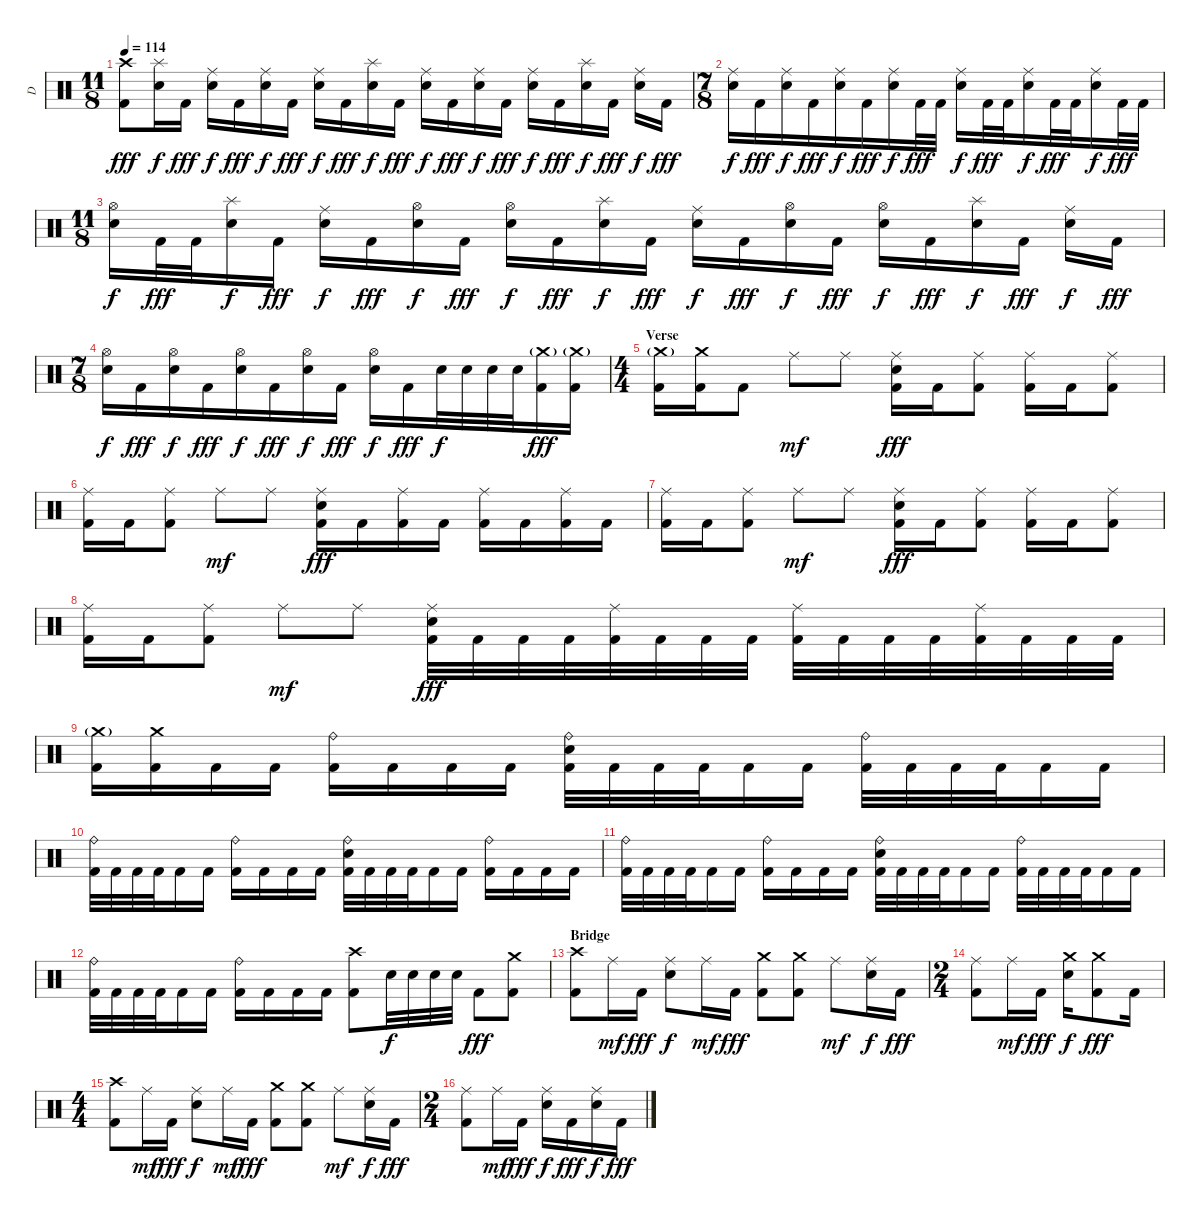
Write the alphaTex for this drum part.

\track ("D" "D") {instrument percussion}
\staff {score}
\articulation defaults
\ts (11 8)
\tempo 114
\clef neutral
\ks c
("Crash high (hit)" "Kick (hit) 2").8{dy fff} ("Splash (hit)" "Electric Snare (hit)").16{dy f} "Kick (hit) 2".16{dy fff} ("Ride (middle)" "Electric Snare (hit)").16{dy f} "Kick (hit) 2".16{dy fff} ("Ride (middle)" "Electric Snare (hit)").16{dy f} "Kick (hit) 2".16{dy fff} ("Ride (middle)" "Electric Snare (hit)").16{dy f} "Kick (hit) 2".16{dy fff} ("Splash (hit)" "Electric Snare (hit)").16{dy f} "Kick (hit) 2".16{dy fff} ("Ride (middle)" "Electric Snare (hit)").16{dy f} "Kick (hit) 2".16{dy fff} ("Ride (middle)" "Electric Snare (hit)").16{dy f} "Kick (hit) 2".16{dy fff} ("Ride (middle)" "Electric Snare (hit)").16{dy f} "Kick (hit) 2".16{dy fff} ("Splash (hit)" "Electric Snare (hit)").16{dy f} "Kick (hit) 2".16{dy fff} ("Ride (middle)" "Electric Snare (hit)").16{dy f} "Kick (hit) 2".16{dy fff} |
\ts (7 8)
("Ride (middle)" "Electric Snare (hit)").16{dy f} "Kick (hit) 2".16{dy fff} ("Ride (middle)" "Electric Snare (hit)").16{dy f} "Kick (hit) 2".16{dy fff} ("Ride (middle)" "Electric Snare (hit)").16{dy f} "Kick (hit) 2".16{dy fff} ("Ride (middle)" "Electric Snare (hit)").16{dy f} "Kick (hit) 2".32{dy fff} "Kick (hit) 2".32 ("Ride (middle)" "Electric Snare (hit)").16{dy f} "Kick (hit) 2".32{dy fff} "Kick (hit) 2".32 ("Ride (middle)" "Electric Snare (hit)").16{dy f} "Kick (hit) 2".32{dy fff} "Kick (hit) 2".32 ("Ride (middle)" "Electric Snare (hit)").16{dy f} "Kick (hit) 2".32{dy fff} "Kick (hit) 2".32 |
\ts (11 8)
("Hi-Hat (open)" "Electric Snare (hit)").16{dy f} "Kick (hit) 2".32{dy fff} "Kick (hit) 2".32 ("Splash (hit)" "Electric Snare (hit)").16{dy f} "Kick (hit) 2".16{dy fff} ("Ride (middle)" "Electric Snare (hit)").16{dy f} "Kick (hit) 2".16{dy fff} ("Hi-Hat (open)" "Electric Snare (hit)").16{dy f} "Kick (hit) 2".16{dy fff} ("Hi-Hat (open)" "Electric Snare (hit)").16{dy f} "Kick (hit) 2".16{dy fff} ("Splash (hit)" "Electric Snare (hit)").16{dy f} "Kick (hit) 2".16{dy fff} ("Ride (middle)" "Electric Snare (hit)").16{dy f} "Kick (hit) 2".16{dy fff} ("Hi-Hat (open)" "Electric Snare (hit)").16{dy f} "Kick (hit) 2".16{dy fff} ("Hi-Hat (open)" "Electric Snare (hit)").16{dy f} "Kick (hit) 2".16{dy fff} ("Splash (hit)" "Electric Snare (hit)").16{dy f} "Kick (hit) 2".16{dy fff} ("Ride (middle)" "Electric Snare (hit)").16{dy f} "Kick (hit) 2".16{dy fff} |
\ts (7 8)
("Hi-Hat (open)" "Electric Snare (hit)").16{dy f} "Kick (hit) 2".16{dy fff} ("Hi-Hat (open)" "Electric Snare (hit)").16{dy f} "Kick (hit) 2".16{dy fff} ("Hi-Hat (open)" "Electric Snare (hit)").16{dy f} "Kick (hit) 2".16{dy fff} ("Hi-Hat (open)" "Electric Snare (hit)").16{dy f} "Kick (hit) 2".16{dy fff} ("Hi-Hat (open)" "Electric Snare (hit)").16{dy f} "Kick (hit) 2".16{dy fff} "Electric Snare (hit)".32{dy f} "Electric Snare (hit)".32 "Electric Snare (hit)".32 "Electric Snare (hit)".32 ("Crash medium (hit)"{g} "Kick (hit) 2").16{dy fff} ("Crash medium (hit)"{g} "Kick (hit) 2").16 |
\ts (4 4)
\section ("" "Verse")
("Crash medium (hit)"{g} "Kick (hit) 2").16 ("Crash medium (hit)" "Kick (hit) 2").16 "Kick (hit) 2".8 "Ride (middle)".8{dy mf} "Ride (middle)".8 ("Ride (middle)" "Electric Snare (hit)" "Kick (hit) 2").16{dy fff} "Kick (hit) 2".16 ("Ride (middle)" "Kick (hit) 2").8 ("Ride (middle)" "Kick (hit) 2").16 "Kick (hit) 2".16 ("Ride (middle)" "Kick (hit) 2").8 |
("Ride (middle)" "Kick (hit) 2").16 "Kick (hit) 2".16 ("Ride (middle)" "Kick (hit) 2").8 "Ride (middle)".8{dy mf} "Ride (middle)".8 ("Ride (middle)" "Electric Snare (hit)" "Kick (hit) 2").16{dy fff} "Kick (hit) 2".16 ("Ride (middle)" "Kick (hit) 2").16 "Kick (hit) 2".16 ("Ride (middle)" "Kick (hit) 2").16 "Kick (hit) 2".16 ("Ride (middle)" "Kick (hit) 2").16 "Kick (hit) 2".16 |
("Ride (middle)" "Kick (hit) 2").16 "Kick (hit) 2".16 ("Ride (middle)" "Kick (hit) 2").8 "Ride (middle)".8{dy mf} "Ride (middle)".8 ("Ride (middle)" "Electric Snare (hit)" "Kick (hit) 2").16{dy fff} "Kick (hit) 2".16 ("Ride (middle)" "Kick (hit) 2").8 ("Ride (middle)" "Kick (hit) 2").16 "Kick (hit) 2".16 ("Ride (middle)" "Kick (hit) 2").8 |
("Ride (middle)" "Kick (hit) 2").16 "Kick (hit) 2".16 ("Ride (middle)" "Kick (hit) 2").8 "Ride (middle)".8{dy mf} "Ride (middle)".8 ("Ride (middle)" "Electric Snare (hit)" "Kick (hit) 2").32{dy fff} "Kick (hit) 2".32 "Kick (hit) 2".32 "Kick (hit) 2".32 ("Ride (middle)" "Kick (hit) 2").32 "Kick (hit) 2".32 "Kick (hit) 2".32 "Kick (hit) 2".32 ("Ride (middle)" "Kick (hit) 2").32 "Kick (hit) 2".32 "Kick (hit) 2".32 "Kick (hit) 2".32 ("Ride (middle)" "Kick (hit) 2").32 "Kick (hit) 2".32 "Kick (hit) 2".32 "Kick (hit) 2".32 |
("Crash medium (hit)"{g} "Kick (hit) 2").16 ("Crash medium (hit)" "Kick (hit) 2").16 "Kick (hit) 2".16 "Kick (hit) 2".16 ("Ride (bell)" "Kick (hit) 2").16 "Kick (hit) 2".16 "Kick (hit) 2".16 "Kick (hit) 2".16 ("Ride (bell)" "Electric Snare (hit)" "Kick (hit) 2").32 "Kick (hit) 2".32 "Kick (hit) 2".32 "Kick (hit) 2".32 "Kick (hit) 2".16 "Kick (hit) 2".16 ("Ride (bell)" "Kick (hit) 2").32 "Kick (hit) 2".32 "Kick (hit) 2".32 "Kick (hit) 2".32 "Kick (hit) 2".16 "Kick (hit) 2".16 |
("Ride (bell)" "Kick (hit) 2").32 "Kick (hit) 2".32 "Kick (hit) 2".32 "Kick (hit) 2".32 "Kick (hit) 2".16 "Kick (hit) 2".16 ("Ride (bell)" "Kick (hit) 2").16 "Kick (hit) 2".16 "Kick (hit) 2".16 "Kick (hit) 2".16 ("Ride (bell)" "Electric Snare (hit)" "Kick (hit) 2").32 "Kick (hit) 2".32 "Kick (hit) 2".32 "Kick (hit) 2".32 "Kick (hit) 2".16 "Kick (hit) 2".16 ("Ride (bell)" "Kick (hit) 2").16 "Kick (hit) 2".16 "Kick (hit) 2".16 "Kick (hit) 2".16 |
("Ride (bell)" "Kick (hit) 2").32 "Kick (hit) 2".32 "Kick (hit) 2".32 "Kick (hit) 2".32 "Kick (hit) 2".16 "Kick (hit) 2".16 ("Ride (bell)" "Kick (hit) 2").16 "Kick (hit) 2".16 "Kick (hit) 2".16 "Kick (hit) 2".16 ("Ride (bell)" "Electric Snare (hit)" "Kick (hit) 2").32 "Kick (hit) 2".32 "Kick (hit) 2".32 "Kick (hit) 2".32 "Kick (hit) 2".16 "Kick (hit) 2".16 ("Ride (bell)" "Kick (hit) 2").32 "Kick (hit) 2".32 "Kick (hit) 2".32 "Kick (hit) 2".32 "Kick (hit) 2".16 "Kick (hit) 2".16 |
("Ride (bell)" "Kick (hit) 2").32 "Kick (hit) 2".32 "Kick (hit) 2".32 "Kick (hit) 2".32 "Kick (hit) 2".16 "Kick (hit) 2".16 ("Ride (bell)" "Kick (hit) 2").16 "Kick (hit) 2".16 "Kick (hit) 2".16 "Kick (hit) 2".16 ("Crash high (hit)" "Kick (hit) 2").8 "Electric Snare (hit)".32{dy f} "Electric Snare (hit)".32 "Electric Snare (hit)".32 "Electric Snare (hit)".32 "Kick (hit) 2".8{dy fff} ("Crash medium (hit)" "Kick (hit) 2").8 |
\section ("" "Bridge")
("Crash high (hit)" "Kick (hit) 2").8 "Ride (middle)".16{dy mf} "Kick (hit) 2".16{dy fff} ("Ride (middle)" "Electric Snare (hit)").8{dy f} "Ride (middle)".16{dy mf} "Kick (hit) 2".16{dy fff} ("Crash medium (hit)" "Kick (hit) 2").8 ("Crash medium (hit)" "Kick (hit) 2").8 "Ride (middle)".8{dy mf} ("Ride (middle)" "Electric Snare (hit)").16{dy f} "Kick (hit) 2".16{dy fff} |
\ts (2 4)
("Ride (middle)" "Kick (hit) 2").8 "Ride (middle)".16{dy mf} "Kick (hit) 2".16{dy fff} ("Crash medium (hit)" "Electric Snare (hit)").16{dy f} ("Crash medium (hit)" "Kick (hit) 2").8{dy fff} "Kick (hit) 2".16 |
\ts (4 4)
("Crash high (hit)" "Kick (hit) 2").8 "Ride (middle)".16{dy mf} "Kick (hit) 2".16{dy fff} ("Ride (middle)" "Electric Snare (hit)").8{dy f} "Ride (middle)".16{dy mf} "Kick (hit) 2".16{dy fff} ("Crash medium (hit)" "Kick (hit) 2").8 ("Crash medium (hit)" "Kick (hit) 2").8 "Ride (middle)".8{dy mf} ("Ride (middle)" "Electric Snare (hit)").16{dy f} "Kick (hit) 2".16{dy fff} |
\ts (2 4)
("Ride (middle)" "Kick (hit) 2").8 "Ride (middle)".16{dy mf} "Kick (hit) 2".16{dy fff} ("Ride (middle)" "Electric Snare (hit)").16{dy f} "Kick (hit) 2".16{dy fff} ("Ride (middle)" "Electric Snare (hit)").16{dy f} "Kick (hit) 2".16{dy fff}
